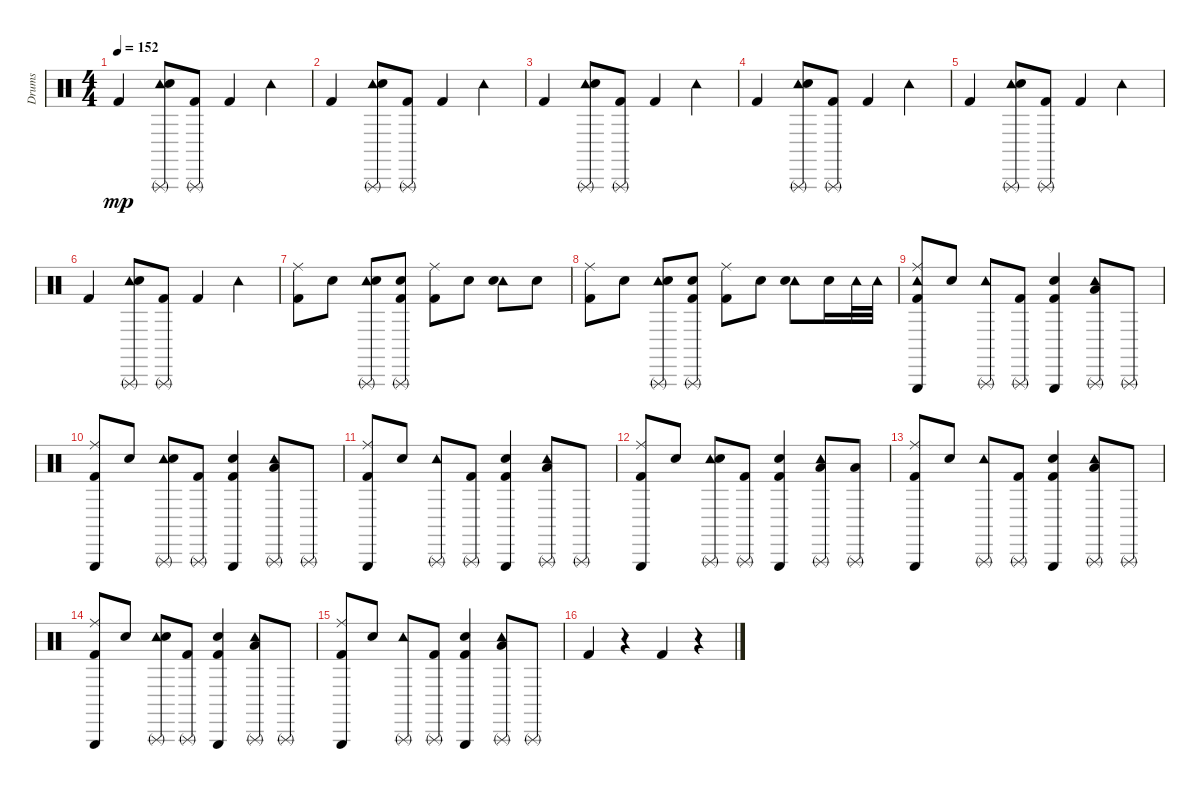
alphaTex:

\track ("Drums" "Drums") {instrument percussion}
\staff {score}
\articulation defaults
\ts (4 4)
\tempo 152
\clef neutral
\ks c "Kick (hit) 2".4{dy mp}
("Triangle (rnute)" "Tambourine (hit)" "Snare (hit) 2").8 ("Triangle (rnute)" "Kick (hit) 2").8 "Kick (hit) 2".4 "Tambourine (hit)".4 |
"Kick (hit) 2".4 ("Triangle (rnute)" "Tambourine (hit)" "Snare (hit) 2").8 ("Triangle (rnute)" "Kick (hit) 2").8 "Kick (hit) 2".4 "Tambourine (hit)".4 |
"Kick (hit) 2".4 ("Triangle (rnute)" "Tambourine (hit)" "Snare (hit) 2").8 ("Triangle (rnute)" "Kick (hit) 2").8 "Kick (hit) 2".4 "Tambourine (hit)".4 |
"Kick (hit) 2".4 ("Triangle (rnute)" "Tambourine (hit)" "Snare (hit) 2").8 ("Triangle (rnute)" "Kick (hit) 2").8 "Kick (hit) 2".4 "Tambourine (hit)".4 |
"Kick (hit) 2".4 ("Triangle (rnute)" "Tambourine (hit)" "Snare (hit) 2").8 ("Triangle (rnute)" "Kick (hit) 2").8 "Kick (hit) 2".4 "Tambourine (hit)".4 |
"Kick (hit) 2".4 ("Triangle (rnute)" "Tambourine (hit)" "Snare (hit) 2").8 ("Triangle (rnute)" "Kick (hit) 2").8 "Kick (hit) 2".4 "Tambourine (hit)".4 |
("Ride (middle)" "Kick (hit) 2").8 "Snare (hit) 2".8 ("Triangle (rnute)" "Tambourine (hit)" "Snare (hit) 2").8 ("Triangle (rnute)" "Kick (hit) 2" "Snare (hit) 2").8 ("Ride (middle)" "Kick (hit) 2").8 "Snare (hit) 2".8 ("Tambourine (hit)" "Snare (hit) 2").8 "Snare (hit) 2".8 |
("Ride (middle)" "Kick (hit) 2").8 "Snare (hit) 2".8 ("Triangle (rnute)" "Tambourine (hit)" "Snare (hit) 2").8 ("Triangle (rnute)" "Kick (hit) 2" "Snare (hit) 2").8 ("Ride (middle)" "Kick (hit) 2").8 "Snare (hit) 2".8 ("Tambourine (hit)" "Snare (hit) 2").8 "Snare (hit) 2".16 "Tambourine (hit)".32 "Tambourine (hit)".32 |
("Triangle (hit)" "Tambourine (hit)" "Ride (middle)" "Kick (hit) 2").8 "Snare (hit) 2".8 ("Triangle (rnute)" "Tambourine (hit)").8 ("Triangle (rnute)" "Kick (hit) 2").8 ("Triangle (hit)" "Kick (hit) 2" "Snare (hit) 2").4 ("Tambourine (hit)" "Low Tom (hit)" "Triangle (rnute)").8 "Triangle (rnute)".8 |
("Triangle (hit)" "Ride (middle)" "Kick (hit) 2").8 "Snare (hit) 2".8 ("Triangle (rnute)" "Tambourine (hit)" "Snare (hit) 2").8 ("Triangle (rnute)" "Kick (hit) 2").8 ("Triangle (hit)" "Kick (hit) 2" "Snare (hit) 2").4 ("Tambourine (hit)" "Low Tom (hit)" "Triangle (rnute)").8 "Triangle (rnute)".8 |
("Triangle (hit)" "Ride (middle)" "Kick (hit) 2").8 "Snare (hit) 2".8 ("Triangle (rnute)" "Tambourine (hit)").8 ("Triangle (rnute)" "Kick (hit) 2").8 ("Triangle (hit)" "Kick (hit) 2" "Snare (hit) 2").4 ("Tambourine (hit)" "Low Tom (hit)" "Triangle (rnute)").8 "Triangle (rnute)".8 |
("Triangle (hit)" "Ride (middle)" "Kick (hit) 2").8 "Snare (hit) 2".8 ("Triangle (rnute)" "Tambourine (hit)" "Snare (hit) 2").8 ("Triangle (rnute)" "Kick (hit) 2").8 ("Triangle (hit)" "Kick (hit) 2" "Snare (hit) 2").4 ("Tambourine (hit)" "Triangle (rnute)" "Low Tom (hit)").8 ("Low Tom (hit)" "Triangle (rnute)").8 |
("Triangle (hit)" "Ride (middle)" "Kick (hit) 2").8 "Snare (hit) 2".8 ("Triangle (rnute)" "Tambourine (hit)").8 ("Triangle (rnute)" "Kick (hit) 2").8 ("Triangle (hit)" "Kick (hit) 2" "Snare (hit) 2").4 ("Tambourine (hit)" "Low Tom (hit)" "Triangle (rnute)").8 "Triangle (rnute)".8 |
("Triangle (hit)" "Ride (middle)" "Kick (hit) 2").8 "Snare (hit) 2".8 ("Triangle (rnute)" "Tambourine (hit)" "Snare (hit) 2").8 ("Triangle (rnute)" "Kick (hit) 2").8 ("Triangle (hit)" "Kick (hit) 2" "Snare (hit) 2").4 ("Tambourine (hit)" "Low Tom (hit)" "Triangle (rnute)").8 "Triangle (rnute)".8 |
("Triangle (hit)" "Ride (middle)" "Kick (hit) 2").8 "Snare (hit) 2".8 ("Triangle (rnute)" "Tambourine (hit)").8 ("Triangle (rnute)" "Kick (hit) 2").8 ("Triangle (hit)" "Kick (hit) 2" "Snare (hit) 2").4 ("Tambourine (hit)" "Low Tom (hit)" "Triangle (rnute)").8 "Triangle (rnute)".8 |
"Kick (hit) 2".4 r.4 "Kick (hit) 2".4 r.4
